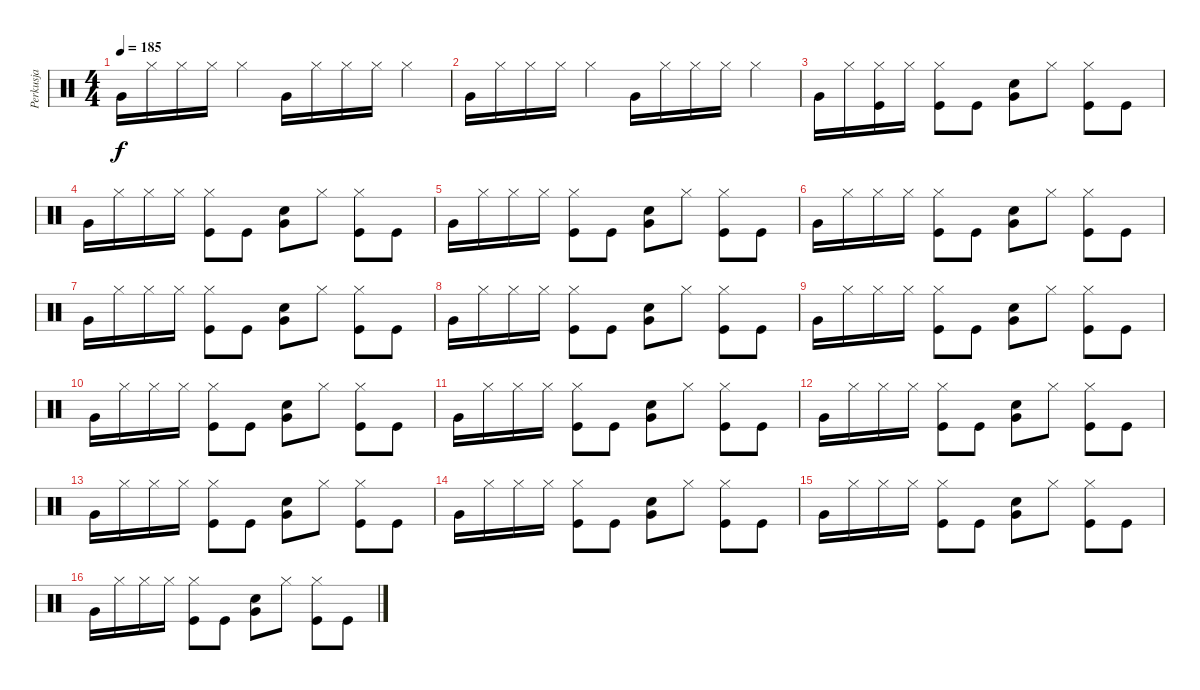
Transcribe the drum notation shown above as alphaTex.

\track ("Perkusja" "Perkusja") {instrument percussion}
\staff {score}
\articulation defaults
\ts (4 4)
\tempo 185
\clef neutral
\ks c "Very Low Tom (hit)".16{dy f} "Hi-Hat (closed)".16 "Hi-Hat (closed)".16 "Hi-Hat (closed)".16 "Hi-Hat (closed)".4 "Very Low Tom (hit)".16 "Hi-Hat (closed)".16 "Hi-Hat (closed)".16 "Hi-Hat (closed)".16 "Hi-Hat (closed)".4
|
"Very Low Tom (hit)".16 "Hi-Hat (closed)".16 "Hi-Hat (closed)".16 "Hi-Hat (closed)".16 "Hi-Hat (closed)".4 "Very Low Tom (hit)".16 "Hi-Hat (closed)".16 "Hi-Hat (closed)".16 "Hi-Hat (closed)".16 "Hi-Hat (closed)".4 |
"Very Low Tom (hit)".16 "Hi-Hat (closed)".16 ("Hi-Hat (closed)" "Kick (hit)").16 "Hi-Hat (closed)".16 ("Hi-Hat (closed)" "Kick (hit)").8 "Kick (hit)".8 ("Snare (hit) 2" "Very Low Tom (hit)").8 "Hi-Hat (closed)".8 ("Hi-Hat (closed)" "Kick (hit)").8 "Kick (hit)".8 |
"Very Low Tom (hit)".16 "Hi-Hat (closed)".16 "Hi-Hat (closed)".16 "Hi-Hat (closed)".16 ("Hi-Hat (closed)" "Kick (hit)").8 "Kick (hit)".8 ("Snare (hit) 2" "Very Low Tom (hit)").8 "Hi-Hat (closed)".8 ("Hi-Hat (closed)" "Kick (hit)").8 "Kick (hit)".8 |
"Very Low Tom (hit)".16 "Hi-Hat (closed)".16 "Hi-Hat (closed)".16 "Hi-Hat (closed)".16 ("Hi-Hat (closed)" "Kick (hit)").8 "Kick (hit)".8 ("Snare (hit) 2" "Very Low Tom (hit)").8 "Hi-Hat (closed)".8 ("Hi-Hat (closed)" "Kick (hit)").8 "Kick (hit)".8 |
"Very Low Tom (hit)".16 "Hi-Hat (closed)".16 "Hi-Hat (closed)".16 "Hi-Hat (closed)".16 ("Hi-Hat (closed)" "Kick (hit)").8 "Kick (hit)".8 ("Snare (hit) 2" "Very Low Tom (hit)").8 "Hi-Hat (closed)".8 ("Hi-Hat (closed)" "Kick (hit)").8 "Kick (hit)".8 |
"Very Low Tom (hit)".16 "Hi-Hat (closed)".16 "Hi-Hat (closed)".16 "Hi-Hat (closed)".16 ("Hi-Hat (closed)" "Kick (hit)").8 "Kick (hit)".8 ("Snare (hit) 2" "Very Low Tom (hit)").8 "Hi-Hat (closed)".8 ("Hi-Hat (closed)" "Kick (hit)").8 "Kick (hit)".8 |
"Very Low Tom (hit)".16 "Hi-Hat (closed)".16 "Hi-Hat (closed)".16 "Hi-Hat (closed)".16 ("Hi-Hat (closed)" "Kick (hit)").8 "Kick (hit)".8 ("Snare (hit) 2" "Very Low Tom (hit)").8 "Hi-Hat (closed)".8 ("Hi-Hat (closed)" "Kick (hit)").8 "Kick (hit)".8 |
"Very Low Tom (hit)".16 "Hi-Hat (closed)".16 "Hi-Hat (closed)".16 "Hi-Hat (closed)".16 ("Hi-Hat (closed)" "Kick (hit)").8 "Kick (hit)".8 ("Snare (hit) 2" "Very Low Tom (hit)").8 "Hi-Hat (closed)".8 ("Hi-Hat (closed)" "Kick (hit)").8 "Kick (hit)".8 |
"Very Low Tom (hit)".16 "Hi-Hat (closed)".16 "Hi-Hat (closed)".16 "Hi-Hat (closed)".16 ("Hi-Hat (closed)" "Kick (hit)").8 "Kick (hit)".8 ("Snare (hit) 2" "Very Low Tom (hit)").8 "Hi-Hat (closed)".8 ("Hi-Hat (closed)" "Kick (hit)").8 "Kick (hit)".8 |
"Very Low Tom (hit)".16 "Hi-Hat (closed)".16 "Hi-Hat (closed)".16 "Hi-Hat (closed)".16 ("Hi-Hat (closed)" "Kick (hit)").8 "Kick (hit)".8 ("Snare (hit) 2" "Very Low Tom (hit)").8 "Hi-Hat (closed)".8 ("Hi-Hat (closed)" "Kick (hit)").8 "Kick (hit)".8 |
"Very Low Tom (hit)".16 "Hi-Hat (closed)".16 "Hi-Hat (closed)".16 "Hi-Hat (closed)".16 ("Hi-Hat (closed)" "Kick (hit)").8 "Kick (hit)".8 ("Snare (hit) 2" "Very Low Tom (hit)").8 "Hi-Hat (closed)".8 ("Hi-Hat (closed)" "Kick (hit)").8 "Kick (hit)".8 |
"Very Low Tom (hit)".16 "Hi-Hat (closed)".16 "Hi-Hat (closed)".16 "Hi-Hat (closed)".16 ("Hi-Hat (closed)" "Kick (hit)").8 "Kick (hit)".8 ("Snare (hit) 2" "Very Low Tom (hit)").8 "Hi-Hat (closed)".8 ("Hi-Hat (closed)" "Kick (hit)").8 "Kick (hit)".8 |
"Very Low Tom (hit)".16 "Hi-Hat (closed)".16 "Hi-Hat (closed)".16 "Hi-Hat (closed)".16 ("Hi-Hat (closed)" "Kick (hit)").8 "Kick (hit)".8 ("Snare (hit) 2" "Very Low Tom (hit)").8 "Hi-Hat (closed)".8 ("Hi-Hat (closed)" "Kick (hit)").8 "Kick (hit)".8 |
"Very Low Tom (hit)".16 "Hi-Hat (closed)".16 "Hi-Hat (closed)".16 "Hi-Hat (closed)".16 ("Hi-Hat (closed)" "Kick (hit)").8 "Kick (hit)".8 ("Snare (hit) 2" "Very Low Tom (hit)").8 "Hi-Hat (closed)".8 ("Hi-Hat (closed)" "Kick (hit)").8 "Kick (hit)".8 |
"Very Low Tom (hit)".16 "Hi-Hat (closed)".16 "Hi-Hat (closed)".16 "Hi-Hat (closed)".16 ("Hi-Hat (closed)" "Kick (hit)").8 "Kick (hit)".8 ("Snare (hit) 2" "Very Low Tom (hit)").8 "Hi-Hat (closed)".8 ("Hi-Hat (closed)" "Kick (hit)").8 "Kick (hit)".8
